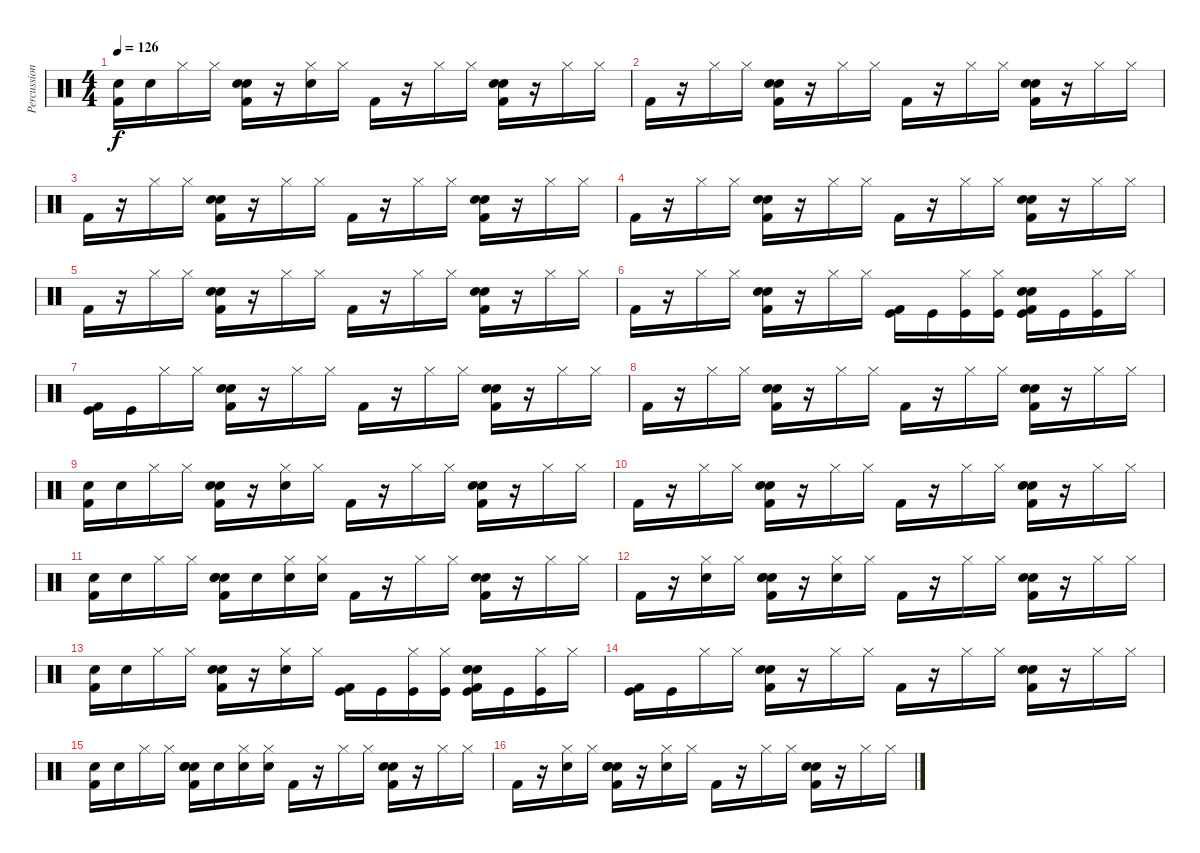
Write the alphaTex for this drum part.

\track ("Percussion" "Percussion") {instrument percussion}
\staff {score}
\articulation defaults
\ts (4 4)
\tempo 126
\clef neutral
\ks c
("Snare (hit) 2" "Kick (hit) 2").16{dy f} "Snare (hit) 2".16 "Hi-Hat (closed)".16 "Hi-Hat (closed)".16 ("Hand Clap (hit)" "Electric Snare (hit)" "Kick (hit) 2").16 r.16 ("Hi-Hat (closed)" "Snare (hit) 2").16 "Hi-Hat (closed)".16 "Kick (hit) 2".16 r.16 "Hi-Hat (closed)".16 "Hi-Hat (closed)".16 ("Hand Clap (hit)" "Electric Snare (hit)" "Kick (hit) 2").16 r.16 "Hi-Hat (closed)".16 "Hi-Hat (closed)".16 |
"Kick (hit) 2".16 r.16 "Hi-Hat (closed)".16 "Hi-Hat (closed)".16 ("Hand Clap (hit)" "Electric Snare (hit)" "Kick (hit) 2").16 r.16 "Hi-Hat (closed)".16 "Hi-Hat (closed)".16 "Kick (hit) 2".16 r.16 "Hi-Hat (closed)".16 "Hi-Hat (closed)".16 ("Hand Clap (hit)" "Electric Snare (hit)" "Kick (hit) 2").16 r.16 "Hi-Hat (closed)".16 "Hi-Hat (closed)".16 |
"Kick (hit) 2".16 r.16 "Hi-Hat (closed)".16 "Hi-Hat (closed)".16 ("Hand Clap (hit)" "Electric Snare (hit)" "Kick (hit) 2").16 r.16 "Hi-Hat (closed)".16 "Hi-Hat (closed)".16 "Kick (hit) 2".16 r.16 "Hi-Hat (closed)".16 "Hi-Hat (closed)".16 ("Hand Clap (hit)" "Electric Snare (hit)" "Kick (hit) 2").16 r.16 "Hi-Hat (closed)".16 "Hi-Hat (closed)".16 |
"Kick (hit) 2".16 r.16 "Hi-Hat (closed)".16 "Hi-Hat (closed)".16 ("Hand Clap (hit)" "Electric Snare (hit)" "Kick (hit) 2").16 r.16 "Hi-Hat (closed)".16 "Hi-Hat (closed)".16 "Kick (hit) 2".16 r.16 "Hi-Hat (closed)".16 "Hi-Hat (closed)".16 ("Hand Clap (hit)" "Electric Snare (hit)" "Kick (hit) 2").16 r.16 "Hi-Hat (closed)".16 "Hi-Hat (closed)".16 |
"Kick (hit) 2".16 r.16 "Hi-Hat (closed)".16 "Hi-Hat (closed)".16 ("Hand Clap (hit)" "Electric Snare (hit)" "Kick (hit) 2").16 r.16 "Hi-Hat (closed)".16 "Hi-Hat (closed)".16 "Kick (hit) 2".16 r.16 "Hi-Hat (closed)".16 "Hi-Hat (closed)".16 ("Hand Clap (hit)" "Electric Snare (hit)" "Kick (hit) 2").16 r.16 "Hi-Hat (closed)".16 "Hi-Hat (closed)".16 |
"Kick (hit) 2".16 r.16 "Hi-Hat (closed)".16 "Hi-Hat (closed)".16 ("Hand Clap (hit)" "Electric Snare (hit)" "Kick (hit) 2").16 r.16 "Hi-Hat (closed)".16 "Hi-Hat (closed)".16 ("Kick (hit)" "Kick (hit) 2").16 "Kick (hit)".16 ("Hi-Hat (closed)" "Kick (hit)").16 ("Hi-Hat (closed)" "Kick (hit)").16 ("Kick (hit)" "Hand Clap (hit)" "Electric Snare (hit)" "Kick (hit) 2").16 "Kick (hit)".16 ("Hi-Hat (closed)" "Kick (hit)").16 "Hi-Hat (closed)".16 |
("Kick (hit)" "Kick (hit) 2").16 "Kick (hit)".16 "Hi-Hat (closed)".16 "Hi-Hat (closed)".16 ("Hand Clap (hit)" "Electric Snare (hit)" "Kick (hit) 2").16 r.16 "Hi-Hat (closed)".16 "Hi-Hat (closed)".16 "Kick (hit) 2".16 r.16 "Hi-Hat (closed)".16 "Hi-Hat (closed)".16 ("Hand Clap (hit)" "Electric Snare (hit)" "Kick (hit) 2").16 r.16 "Hi-Hat (closed)".16 "Hi-Hat (closed)".16 |
"Kick (hit) 2".16 r.16 "Hi-Hat (closed)".16 "Hi-Hat (closed)".16 ("Hand Clap (hit)" "Electric Snare (hit)" "Kick (hit) 2").16 r.16 "Hi-Hat (closed)".16 "Hi-Hat (closed)".16 "Kick (hit) 2".16 r.16 "Hi-Hat (closed)".16 "Hi-Hat (closed)".16 ("Hand Clap (hit)" "Electric Snare (hit)" "Kick (hit) 2").16 r.16 "Hi-Hat (closed)".16 "Hi-Hat (closed)".16 |
("Snare (hit) 2" "Kick (hit) 2").16 "Snare (hit) 2".16 "Hi-Hat (closed)".16 "Hi-Hat (closed)".16 ("Hand Clap (hit)" "Electric Snare (hit)" "Kick (hit) 2").16 r.16 ("Hi-Hat (closed)" "Snare (hit) 2").16 "Hi-Hat (closed)".16 "Kick (hit) 2".16 r.16 "Hi-Hat (closed)".16 "Hi-Hat (closed)".16 ("Hand Clap (hit)" "Electric Snare (hit)" "Kick (hit) 2").16 r.16 "Hi-Hat (closed)".16 "Hi-Hat (closed)".16 |
"Kick (hit) 2".16 r.16 "Hi-Hat (closed)".16 "Hi-Hat (closed)".16 ("Hand Clap (hit)" "Electric Snare (hit)" "Kick (hit) 2").16 r.16 "Hi-Hat (closed)".16 "Hi-Hat (closed)".16 "Kick (hit) 2".16 r.16 "Hi-Hat (closed)".16 "Hi-Hat (closed)".16 ("Hand Clap (hit)" "Electric Snare (hit)" "Kick (hit) 2").16 r.16 "Hi-Hat (closed)".16 "Hi-Hat (closed)".16 |
("Snare (hit) 2" "Kick (hit) 2").16 "Snare (hit) 2".16 "Hi-Hat (closed)".16 "Hi-Hat (closed)".16 ("Snare (hit) 2" "Hand Clap (hit)" "Electric Snare (hit)" "Kick (hit) 2").16 "Snare (hit) 2".16 ("Hi-Hat (closed)" "Snare (hit) 2").16 ("Hi-Hat (closed)" "Snare (hit) 2").16 "Kick (hit) 2".16 r.16 "Hi-Hat (closed)".16 "Hi-Hat (closed)".16 ("Hand Clap (hit)" "Electric Snare (hit)" "Kick (hit) 2").16 r.16 "Hi-Hat (closed)".16 "Hi-Hat (closed)".16 |
"Kick (hit) 2".16 r.16 ("Hi-Hat (closed)" "Snare (hit) 2").16 "Hi-Hat (closed)".16 ("Snare (hit) 2" "Hand Clap (hit)" "Electric Snare (hit)" "Kick (hit) 2").16 r.16 ("Hi-Hat (closed)" "Snare (hit) 2").16 "Hi-Hat (closed)".16 "Kick (hit) 2".16 r.16 "Hi-Hat (closed)".16 "Hi-Hat (closed)".16 ("Hand Clap (hit)" "Electric Snare (hit)" "Kick (hit) 2").16 r.16 "Hi-Hat (closed)".16 "Hi-Hat (closed)".16 |
("Snare (hit) 2" "Kick (hit) 2").16 "Snare (hit) 2".16 "Hi-Hat (closed)".16 "Hi-Hat (closed)".16 ("Hand Clap (hit)" "Electric Snare (hit)" "Kick (hit) 2").16 r.16 ("Hi-Hat (closed)" "Snare (hit) 2").16 "Hi-Hat (closed)".16 ("Kick (hit)" "Kick (hit) 2").16 "Kick (hit)".16 ("Hi-Hat (closed)" "Kick (hit)").16 ("Hi-Hat (closed)" "Kick (hit)").16 ("Kick (hit)" "Hand Clap (hit)" "Electric Snare (hit)" "Kick (hit) 2").16 "Kick (hit)".16 ("Hi-Hat (closed)" "Kick (hit)").16 "Hi-Hat (closed)".16 |
("Kick (hit)" "Kick (hit) 2").16 "Kick (hit)".16 "Hi-Hat (closed)".16 "Hi-Hat (closed)".16 ("Hand Clap (hit)" "Electric Snare (hit)" "Kick (hit) 2").16 r.16 "Hi-Hat (closed)".16 "Hi-Hat (closed)".16 "Kick (hit) 2".16 r.16 "Hi-Hat (closed)".16 "Hi-Hat (closed)".16 ("Hand Clap (hit)" "Electric Snare (hit)" "Kick (hit) 2").16 r.16 "Hi-Hat (closed)".16 "Hi-Hat (closed)".16 |
("Snare (hit) 2" "Kick (hit) 2").16 "Snare (hit) 2".16 "Hi-Hat (closed)".16 "Hi-Hat (closed)".16 ("Snare (hit) 2" "Hand Clap (hit)" "Electric Snare (hit)" "Kick (hit) 2").16 "Snare (hit) 2".16 ("Hi-Hat (closed)" "Snare (hit) 2").16 ("Hi-Hat (closed)" "Snare (hit) 2").16 "Kick (hit) 2".16 r.16 "Hi-Hat (closed)".16 "Hi-Hat (closed)".16 ("Hand Clap (hit)" "Electric Snare (hit)" "Kick (hit) 2").16 r.16 "Hi-Hat (closed)".16 "Hi-Hat (closed)".16 |
"Kick (hit) 2".16 r.16 ("Hi-Hat (closed)" "Snare (hit) 2").16 "Hi-Hat (closed)".16 ("Snare (hit) 2" "Hand Clap (hit)" "Electric Snare (hit)" "Kick (hit) 2").16 r.16 ("Hi-Hat (closed)" "Snare (hit) 2").16 "Hi-Hat (closed)".16 "Kick (hit) 2".16 r.16 "Hi-Hat (closed)".16 "Hi-Hat (closed)".16 ("Hand Clap (hit)" "Electric Snare (hit)" "Kick (hit) 2").16 r.16 "Hi-Hat (closed)".16 "Hi-Hat (closed)".16
